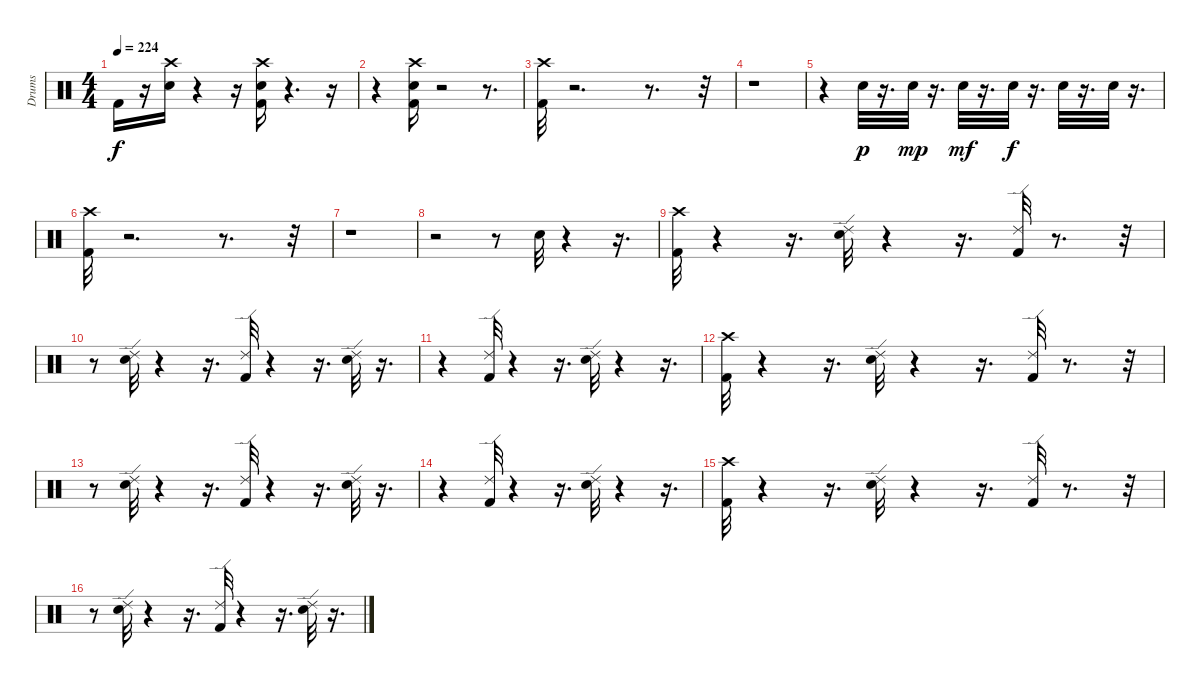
\track ("Drums" "Drums") {instrument percussion}
\staff {score}
\articulation defaults
\ts (4 4)
\tempo 224
\clef neutral
\ks c "Kick (hit) 2".16{dy f}
r.16 ("Snare (hit) 2" "Crash high (hit)").16 r.4 r.16 ("Kick (hit) 2" "Snare (hit) 2" "Crash high (hit)").16 r.4{d} r.16 |
r.4 ("Kick (hit) 2" "Snare (hit) 2" "Crash high (hit)").16 r.2 r.8{d} |
("Kick (hit) 2" "Crash high (hit)").32 r.2{d} r.8{d} r.32 |
r.1 |
r.4 "Snare (hit) 2".32{dy p} r.16{d} "Snare (hit) 2".32{dy mp} r.16{d} "Snare (hit) 2".32{dy mf} r.16{d} "Snare (hit) 2".32{dy f} r.16{d} "Snare (hit) 2".32 r.16{d} "Snare (hit) 2".32 r.16{d} |
("Kick (hit) 2" "Crash high (hit)").32 r.2{d} r.8{d} r.32 |
r.1 |
r.2 r.8 "Snare (hit) 2".32 r.4 r.16{d} |
("Crash high (hit)" "Kick (hit) 2").32 r.4 r.16{d} ("Ride (edge) 2" "Snare (hit) 2").32 r.4 r.16{d} ("Kick (hit) 2" "Ride (edge) 2").32 r.8{d} r.32 |
r.8 ("Snare (hit) 2" "Ride (edge) 2").32 r.4 r.16{d} ("Ride (edge) 2" "Kick (hit) 2").32 r.4 r.16{d} ("Snare (hit) 2" "Ride (edge) 2").32 r.16{d} |
r.4 ("Ride (edge) 2" "Kick (hit) 2").32 r.4 r.16{d} ("Ride (edge) 2" "Snare (hit) 2").32 r.4 r.16{d} |
("Crash high (hit)" "Kick (hit) 2").32 r.4 r.16{d} ("Ride (edge) 2" "Snare (hit) 2").32 r.4 r.16{d} ("Kick (hit) 2" "Ride (edge) 2").32 r.8{d} r.32 |
r.8 ("Snare (hit) 2" "Ride (edge) 2").32 r.4 r.16{d} ("Ride (edge) 2" "Kick (hit) 2").32 r.4 r.16{d} ("Snare (hit) 2" "Ride (edge) 2").32 r.16{d} |
r.4 ("Ride (edge) 2" "Kick (hit) 2").32 r.4 r.16{d} ("Ride (edge) 2" "Snare (hit) 2").32 r.4 r.16{d} |
("Crash high (hit)" "Kick (hit) 2").32 r.4 r.16{d} ("Ride (edge) 2" "Snare (hit) 2").32 r.4 r.16{d} ("Kick (hit) 2" "Ride (edge) 2").32 r.8{d} r.32 |
r.8 ("Snare (hit) 2" "Ride (edge) 2").32 r.4 r.16{d} ("Ride (edge) 2" "Kick (hit) 2").32 r.4 r.16{d} ("Snare (hit) 2" "Ride (edge) 2").32 r.16{d}
